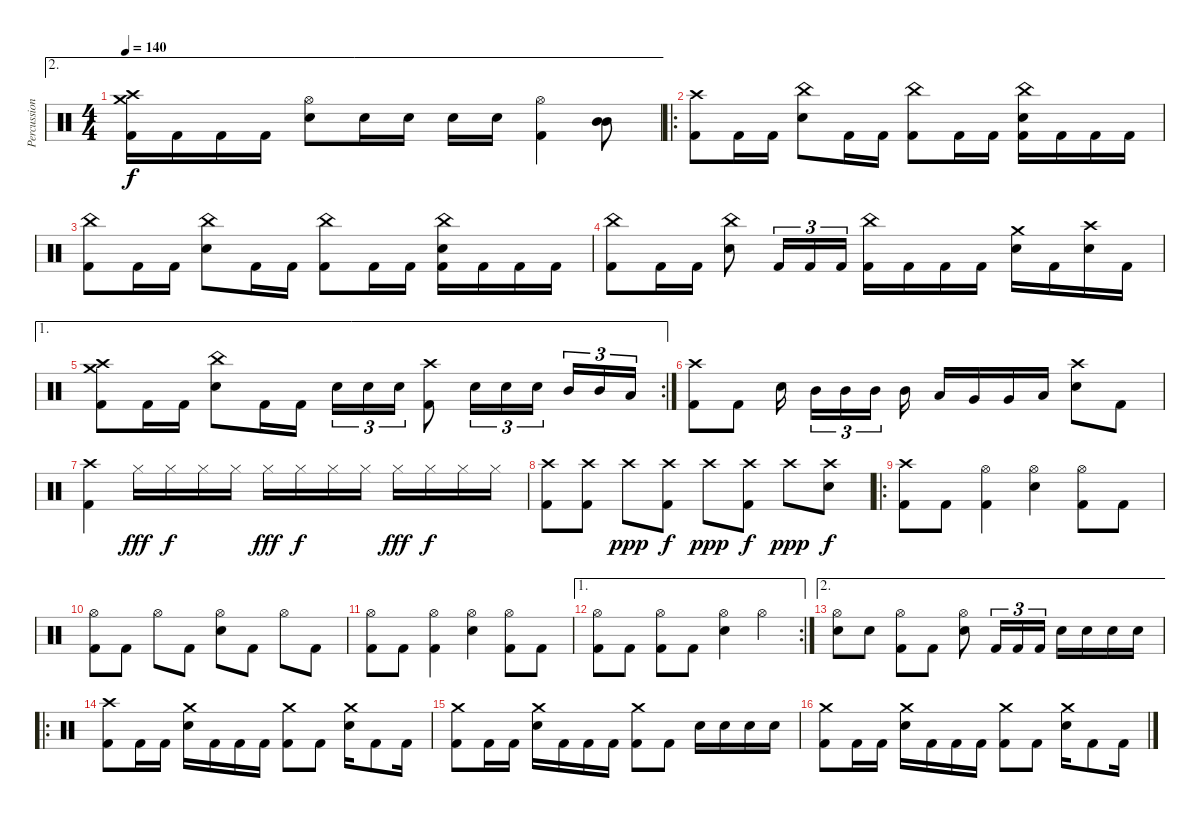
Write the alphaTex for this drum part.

\track ("Percussions" "Percussion") {instrument percussion}
\staff {score}
\articulation defaults
\ae 2
\ts (4 4)
\tempo 140
\clef neutral
\ks c
("Crash high (hit)" "Crash medium (hit)" "Kick (hit) 2").16{dy f} "Kick (hit) 2".16 "Kick (hit) 2".16 "Kick (hit) 2".16 ("Hi-Hat (open)" "Snare (hit) 2").8 "Snare (hit) 2".16 "Snare (hit) 2".16 "Snare (hit) 2".16 "Snare (hit) 2".16 ("Hi-Hat (open)" "Kick (hit) 2").4 ("Mid Tom (hit)" "Mid Tom (hit)").8{bd 240} |
\ro
("Crash high (hit)" "Kick (hit) 2").8 "Kick (hit) 2".16 "Kick (hit) 2".16 ("China (hit)" "Snare (hit) 2").8 "Kick (hit) 2".16 "Kick (hit) 2".16 ("China (hit)" "Kick (hit) 2").8 "Kick (hit) 2".16 "Kick (hit) 2".16 ("China (hit)" "Snare (hit) 2" "Kick (hit) 2").16 "Kick (hit) 2".16 "Kick (hit) 2".16 "Kick (hit) 2".16 |
("China (hit)" "Kick (hit) 2").8 "Kick (hit) 2".16 "Kick (hit) 2".16 ("China (hit)" "Snare (hit) 2").8 "Kick (hit) 2".16 "Kick (hit) 2".16 ("China (hit)" "Kick (hit) 2").8 "Kick (hit) 2".16 "Kick (hit) 2".16 ("China (hit)" "Snare (hit) 2" "Kick (hit) 2").16 "Kick (hit) 2".16 "Kick (hit) 2".16 "Kick (hit) 2".16 |
("China (hit)" "Kick (hit) 2").8 "Kick (hit) 2".16 "Kick (hit) 2".16 ("China (hit)" "Snare (hit) 2").8 "Kick (hit) 2".16{tu (3 2)} "Kick (hit) 2".16{tu (3 2)} "Kick (hit) 2".16{tu (3 2)} ("China (hit)" "Kick (hit) 2").16 "Kick (hit) 2".16 "Kick (hit) 2".16 "Kick (hit) 2".16 ("Crash medium (hit)" "Snare (hit) 2").16 "Kick (hit) 2".16 ("Crash high (hit)" "Snare (hit) 2").16 "Kick (hit) 2".16 |
\ae 1
\rc 2
("Crash medium (hit)" "Crash high (hit)" "Kick (hit) 2").8 "Kick (hit) 2".16 "Kick (hit) 2".16 ("China (hit)" "Snare (hit) 2").8 "Kick (hit) 2".16 "Kick (hit) 2".16 "Snare (hit) 2".16{tu (3 2)} "Snare (hit) 2".16{tu (3 2)} "Snare (hit) 2".16{tu (3 2)} ("Crash high (hit)" "Kick (hit) 2").8 "Snare (hit) 2".16{tu (3 2)} "Snare (hit) 2".16{tu (3 2)} "Snare (hit) 2".16{tu (3 2)} "Mid Tom (hit)".16{tu (3 2)} "Mid Tom (hit)".16{tu (3 2)} "Low Tom (hit)".16{tu (3 2)} |
("Crash high (hit)" "Kick (hit) 2").8 "Kick (hit) 2".8 "Snare (hit) 2".16 "Mid Tom (hit)".16{tu (3 2)} "Mid Tom (hit)".16{tu (3 2)} "Mid Tom (hit)".16{tu (3 2)} "Mid Tom (hit)".16 "Low Tom (hit)".16 "Very Low Tom (hit)".16 "Very Low Tom (hit)".16 "Low Floor Tom (hit)".16 ("Crash high (hit)" "Snare (hit) 2").8 "Kick (hit) 2".8 |
("Crash high (hit)" "Kick (hit) 2").4 "Hi-Hat (closed)".16{dy fff} "Hi-Hat (closed)".16{dy f} "Hi-Hat (closed)".16 "Hi-Hat (closed)".16 "Hi-Hat (closed)".16{dy fff} "Hi-Hat (closed)".16{dy f} "Hi-Hat (closed)".16 "Hi-Hat (closed)".16 "Hi-Hat (closed)".16{dy fff} "Hi-Hat (closed)".16{dy f} "Hi-Hat (closed)".16 "Hi-Hat (closed)".16 |
("Crash high (hit)" "Kick (hit) 2").8 ("Crash high (hit)" "Kick (hit) 2").8 "Crash high (hit)".8{dy ppp} ("Crash high (hit)" "Kick (hit) 2").8{dy f} "Crash high (hit)".8{dy ppp} ("Crash high (hit)" "Kick (hit) 2").8{dy f} "Crash high (hit)".8{dy ppp} ("Crash high (hit)" "Snare (hit) 2").8{dy f} |
\ro
("Crash high (hit)" "Kick (hit) 2").8 "Kick (hit) 2".8 ("Hi-Hat (open)" "Kick (hit) 2").4 ("Hi-Hat (open)" "Snare (hit) 2").4 ("Hi-Hat (open)" "Kick (hit) 2").8 "Kick (hit) 2".8 |
("Hi-Hat (open)" "Kick (hit) 2").8 "Kick (hit) 2".8 "Hi-Hat (open)".8 "Kick (hit) 2".8 ("Hi-Hat (open)" "Snare (hit) 2").8 "Kick (hit) 2".8 "Hi-Hat (open)".8 "Kick (hit) 2".8 |
("Hi-Hat (open)" "Kick (hit) 2").8 "Kick (hit) 2".8 ("Hi-Hat (open)" "Kick (hit) 2").4 ("Hi-Hat (open)" "Snare (hit) 2").4 ("Hi-Hat (open)" "Kick (hit) 2").8 "Kick (hit) 2".8 |
\ae 1
\rc 2
("Hi-Hat (open)" "Kick (hit) 2").8 "Kick (hit) 2".8 ("Hi-Hat (open)" "Kick (hit) 2").8 "Kick (hit) 2".8 ("Hi-Hat (open)" "Snare (hit) 2").4 "Hi-Hat (open)".4 |
\ae 2
("Hi-Hat (open)" "Snare (hit) 2").8 "Snare (hit) 2".8 ("Hi-Hat (open)" "Kick (hit) 2").8 "Kick (hit) 2".8 ("Hi-Hat (open)" "Snare (hit) 2").8 "Kick (hit) 2".16{tu (3 2)} "Kick (hit) 2".16{tu (3 2)} "Kick (hit) 2".16{tu (3 2)} "Snare (hit) 2".16 "Snare (hit) 2".16 "Snare (hit) 2".16 "Snare (hit) 2".16 |
\ro
("Crash high (hit)" "Kick (hit) 2").8 "Kick (hit) 2".16 "Kick (hit) 2".16 ("Crash medium (hit)" "Snare (hit) 2").16 "Kick (hit) 2".16 "Kick (hit) 2".16 "Kick (hit) 2".16 ("Crash medium (hit)" "Kick (hit) 2").8 "Kick (hit) 2".8 ("Crash medium (hit)" "Snare (hit) 2").16 "Kick (hit) 2".8 "Kick (hit) 2".16 |
("Crash medium (hit)" "Kick (hit) 2").8 "Kick (hit) 2".16 "Kick (hit) 2".16 ("Crash medium (hit)" "Snare (hit) 2").16 "Kick (hit) 2".16 "Kick (hit) 2".16 "Kick (hit) 2".16 ("Crash medium (hit)" "Kick (hit) 2").8 "Kick (hit) 2".8 "Snare (hit) 2".16 "Snare (hit) 2".16 "Snare (hit) 2".16 "Snare (hit) 2".16 |
("Crash medium (hit)" "Kick (hit) 2").8 "Kick (hit) 2".16 "Kick (hit) 2".16 ("Crash medium (hit)" "Snare (hit) 2").16 "Kick (hit) 2".16 "Kick (hit) 2".16 "Kick (hit) 2".16 ("Crash medium (hit)" "Kick (hit) 2").8 "Kick (hit) 2".8 ("Crash medium (hit)" "Snare (hit) 2").16 "Kick (hit) 2".8 "Kick (hit) 2".16
